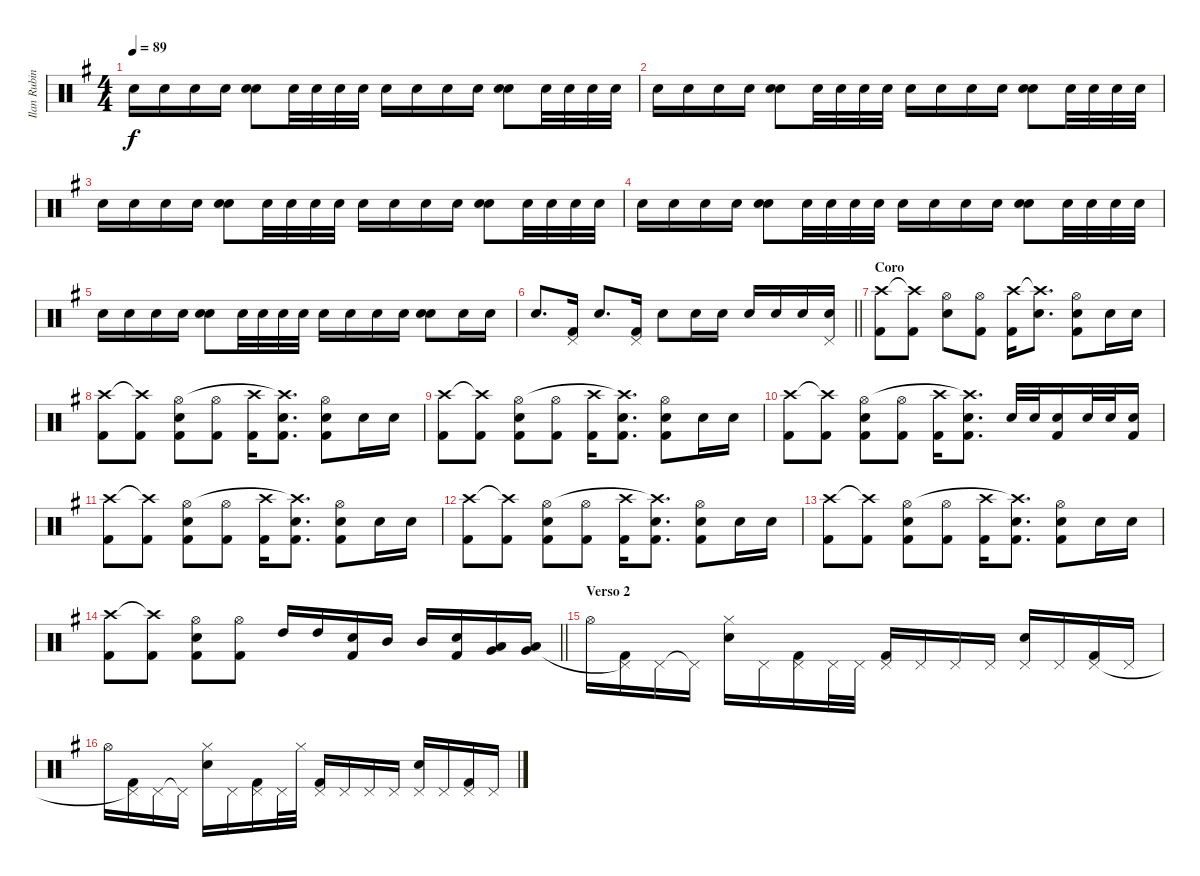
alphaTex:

\track ("Ilan Rubin (Batería)" "Ilan Rubin") {instrument percussion}
\staff {score}
\articulation defaults
\ts (4 4)
\tempo 89
\clef neutral
\ks g "Electric Snare (hit)".16{dy f} "Electric Snare (hit)".16 "Electric Snare (hit)".16 "Electric Snare (hit)".16
("Electric Snare (hit)" "Electric Snare (hit)").8{volume 16} "Electric Snare (hit)".32{volume 13} "Electric Snare (hit)".32 "Electric Snare (hit)".32 "Electric Snare (hit)".32 "Electric Snare (hit)".16 "Electric Snare (hit)".16 "Electric Snare (hit)".16 "Electric Snare (hit)".16 ("Electric Snare (hit)" "Electric Snare (hit)").8{volume 16} "Electric Snare (hit)".32{volume 13} "Electric Snare (hit)".32 "Electric Snare (hit)".32 "Electric Snare (hit)".32 |
"Electric Snare (hit)".16 "Electric Snare (hit)".16 "Electric Snare (hit)".16 "Electric Snare (hit)".16 ("Electric Snare (hit)" "Electric Snare (hit)").8{volume 16} "Electric Snare (hit)".32{volume 13} "Electric Snare (hit)".32 "Electric Snare (hit)".32 "Electric Snare (hit)".32 "Electric Snare (hit)".16 "Electric Snare (hit)".16 "Electric Snare (hit)".16 "Electric Snare (hit)".16 ("Electric Snare (hit)" "Electric Snare (hit)").8{volume 16} "Electric Snare (hit)".32{volume 13} "Electric Snare (hit)".32 "Electric Snare (hit)".32 "Electric Snare (hit)".32 |
"Electric Snare (hit)".16 "Electric Snare (hit)".16 "Electric Snare (hit)".16 "Electric Snare (hit)".16 ("Electric Snare (hit)" "Electric Snare (hit)").8{volume 16} "Electric Snare (hit)".32{volume 13} "Electric Snare (hit)".32 "Electric Snare (hit)".32 "Electric Snare (hit)".32 "Electric Snare (hit)".16 "Electric Snare (hit)".16 "Electric Snare (hit)".16 "Electric Snare (hit)".16 ("Electric Snare (hit)" "Electric Snare (hit)").8{volume 16} "Electric Snare (hit)".32{volume 13} "Electric Snare (hit)".32 "Electric Snare (hit)".32 "Electric Snare (hit)".32 |
"Electric Snare (hit)".16 "Electric Snare (hit)".16 "Electric Snare (hit)".16 "Electric Snare (hit)".16 ("Electric Snare (hit)" "Electric Snare (hit)").8{volume 16} "Electric Snare (hit)".32{volume 13} "Electric Snare (hit)".32 "Electric Snare (hit)".32 "Electric Snare (hit)".32 "Electric Snare (hit)".16 "Electric Snare (hit)".16 "Electric Snare (hit)".16 "Electric Snare (hit)".16 ("Electric Snare (hit)" "Electric Snare (hit)").8{volume 16} "Electric Snare (hit)".32{volume 13} "Electric Snare (hit)".32 "Electric Snare (hit)".32 "Electric Snare (hit)".32 |
"Electric Snare (hit)".16 "Electric Snare (hit)".16 "Electric Snare (hit)".16 "Electric Snare (hit)".16 ("Electric Snare (hit)" "Electric Snare (hit)").8{volume 16} "Electric Snare (hit)".32{volume 13} "Electric Snare (hit)".32 "Electric Snare (hit)".32 "Electric Snare (hit)".32 "Electric Snare (hit)".16 "Electric Snare (hit)".16 "Electric Snare (hit)".16 "Electric Snare (hit)".16 ("Electric Snare (hit)" "Electric Snare (hit)").8{volume 16} "Electric Snare (hit)".16{volume 13} "Electric Snare (hit)".16 |
\barLineRight lightlight "Electric Snare (hit)".8{d}
("Kick (hit) 2" "Pedal Hi-Hat (hit)").16 "Electric Snare (hit)".8{d} ("Kick (hit) 2" "Pedal Hi-Hat (hit)").16 "Electric Snare (hit)".8 "Electric Snare (hit)".16 "Electric Snare (hit)".16 "Electric Snare (hit)".16 "Electric Snare (hit)".16 "Electric Snare (hit)".16 ("Electric Snare (hit)" "Pedal Hi-Hat (hit)").16 |
\section ("" "Coro")
("Kick (hit) 2" "Crash high (hit)").8 ("Kick (hit) 2" "Crash high (hit)"{t}).8 ("Electric Snare (hit)" "Hi-Hat (open)").8 ("Kick (hit) 2" "Hi-Hat (open)").8 ("Kick (hit) 2" "Crash high (hit)").16 ("Electric Snare (hit)" "Crash high (hit)"{t}).8{d} ("Kick (hit) 2" "Electric Snare (hit)" "Hi-Hat (open)").8 "Electric Snare (hit)".16 "Electric Snare (hit)".16 |
("Kick (hit) 2" "Crash high (hit)").8 ("Kick (hit) 2" "Crash high (hit)"{t}).8 ("Kick (hit) 2" "Electric Snare (hit)" "Hi-Hat (open)").8 ("Kick (hit) 2" "Hi-Hat (open)").8 ("Kick (hit) 2" "Crash high (hit)").16 ("Kick (hit) 2" "Electric Snare (hit)" "Crash high (hit)"{t}).8{d} ("Kick (hit) 2" "Electric Snare (hit)" "Hi-Hat (open)").8 "Electric Snare (hit)".16 "Electric Snare (hit)".16 |
("Kick (hit) 2" "Crash high (hit)").8 ("Kick (hit) 2" "Crash high (hit)"{t}).8 ("Kick (hit) 2" "Electric Snare (hit)" "Hi-Hat (open)").8 ("Kick (hit) 2" "Hi-Hat (open)").8 ("Kick (hit) 2" "Crash high (hit)").16 ("Kick (hit) 2" "Electric Snare (hit)" "Crash high (hit)"{t}).8{d} ("Kick (hit) 2" "Electric Snare (hit)" "Hi-Hat (open)").8 "Electric Snare (hit)".16 "Electric Snare (hit)".16 |
("Kick (hit) 2" "Crash high (hit)").8 ("Kick (hit) 2" "Crash high (hit)"{t}).8 ("Kick (hit) 2" "Electric Snare (hit)" "Hi-Hat (open)").8 ("Kick (hit) 2" "Hi-Hat (open)").8 ("Kick (hit) 2" "Crash high (hit)").16 ("Kick (hit) 2" "Electric Snare (hit)" "Crash high (hit)"{t}).8{d} "Electric Snare (hit)".32 "Electric Snare (hit)".32 ("Kick (hit) 2" "Electric Snare (hit)").16 "Electric Snare (hit)".32 "Electric Snare (hit)".32 ("Kick (hit) 2" "Electric Snare (hit)").16 |
("Kick (hit) 2" "Crash high (hit)").8 ("Kick (hit) 2" "Crash high (hit)"{t}).8 ("Kick (hit) 2" "Electric Snare (hit)" "Hi-Hat (open)").8 ("Kick (hit) 2" "Hi-Hat (open)").8 ("Kick (hit) 2" "Crash high (hit)").16 ("Kick (hit) 2" "Electric Snare (hit)" "Crash high (hit)"{t}).8{d} ("Kick (hit) 2" "Electric Snare (hit)" "Hi-Hat (open)").8 "Electric Snare (hit)".16 "Electric Snare (hit)".16 |
("Kick (hit) 2" "Crash high (hit)").8 ("Kick (hit) 2" "Crash high (hit)"{t}).8 ("Kick (hit) 2" "Electric Snare (hit)" "Hi-Hat (open)").8 ("Kick (hit) 2" "Hi-Hat (open)").8 ("Kick (hit) 2" "Crash high (hit)").16 ("Kick (hit) 2" "Electric Snare (hit)" "Crash high (hit)"{t}).8{d} ("Kick (hit) 2" "Electric Snare (hit)" "Hi-Hat (open)").8 "Electric Snare (hit)".16 "Electric Snare (hit)".16 |
("Kick (hit) 2" "Crash high (hit)").8 ("Kick (hit) 2" "Crash high (hit)"{t}).8 ("Kick (hit) 2" "Electric Snare (hit)" "Hi-Hat (open)").8 ("Kick (hit) 2" "Hi-Hat (open)").8 ("Kick (hit) 2" "Crash high (hit)").16 ("Kick (hit) 2" "Electric Snare (hit)" "Crash high (hit)"{t}).8{d} ("Kick (hit) 2" "Electric Snare (hit)" "Hi-Hat (open)").8 "Electric Snare (hit)".16 "Electric Snare (hit)".16 |
\barLineRight lightlight
("Kick (hit) 2" "Crash high (hit)").8 ("Kick (hit) 2" "Crash high (hit)"{t}).8 ("Kick (hit) 2" "Electric Snare (hit)" "Hi-Hat (open)").8 ("Kick (hit) 2" "Hi-Hat (open)").8 "High Tom (hit)".16 "High Tom (hit)".16 ("Kick (hit) 2" "Electric Snare (hit)").16 "Mid Tom (hit)".16 "Mid Tom (hit)".16 ("Kick (hit) 2" "Electric Snare (hit)").16 ("Low Tom (hit)" "Very Low Tom (hit)").16 ("Low Tom (hit)" "Very Low Tom (hit)").16 |
\section ("" "Verso 2")
"Hi-Hat (open)".16 ("Kick (hit) 2" "Pedal Hi-Hat (hit)"{t}).16 "Pedal Hi-Hat (hit)".16 "Pedal Hi-Hat (hit)"{t}.16 ("Electric Snare (hit)" "Hi-Hat (closed)").16 "Pedal Hi-Hat (hit)".16 ("Kick (hit) 2" "Pedal Hi-Hat (hit)").16 "Pedal Hi-Hat (hit)".32 "Pedal Hi-Hat (hit)".32 ("Kick (hit) 2" "Pedal Hi-Hat (hit)").16 "Pedal Hi-Hat (hit)".16 "Pedal Hi-Hat (hit)".16 "Pedal Hi-Hat (hit)".16 ("Electric Snare (hit)" "Pedal Hi-Hat (hit)").16 "Pedal Hi-Hat (hit)".16 ("Kick (hit) 2" "Pedal Hi-Hat (hit)").16 "Pedal Hi-Hat (hit)".16 |
"Hi-Hat (open)".16 ("Kick (hit) 2" "Pedal Hi-Hat (hit)"{t}).16 "Pedal Hi-Hat (hit)".16 "Pedal Hi-Hat (hit)"{t}.16 ("Electric Snare (hit)" "Hi-Hat (closed)").16 "Pedal Hi-Hat (hit)".16 ("Kick (hit) 2" "Pedal Hi-Hat (hit)").16 "Pedal Hi-Hat (hit)".32 "Hi-Hat (closed)".32 ("Kick (hit) 2" "Pedal Hi-Hat (hit)").16 "Pedal Hi-Hat (hit)".16 "Pedal Hi-Hat (hit)".16 "Pedal Hi-Hat (hit)".16 ("Electric Snare (hit)" "Pedal Hi-Hat (hit)").16 "Pedal Hi-Hat (hit)".16 ("Kick (hit) 2" "Pedal Hi-Hat (hit)").16 "Pedal Hi-Hat (hit)".16
